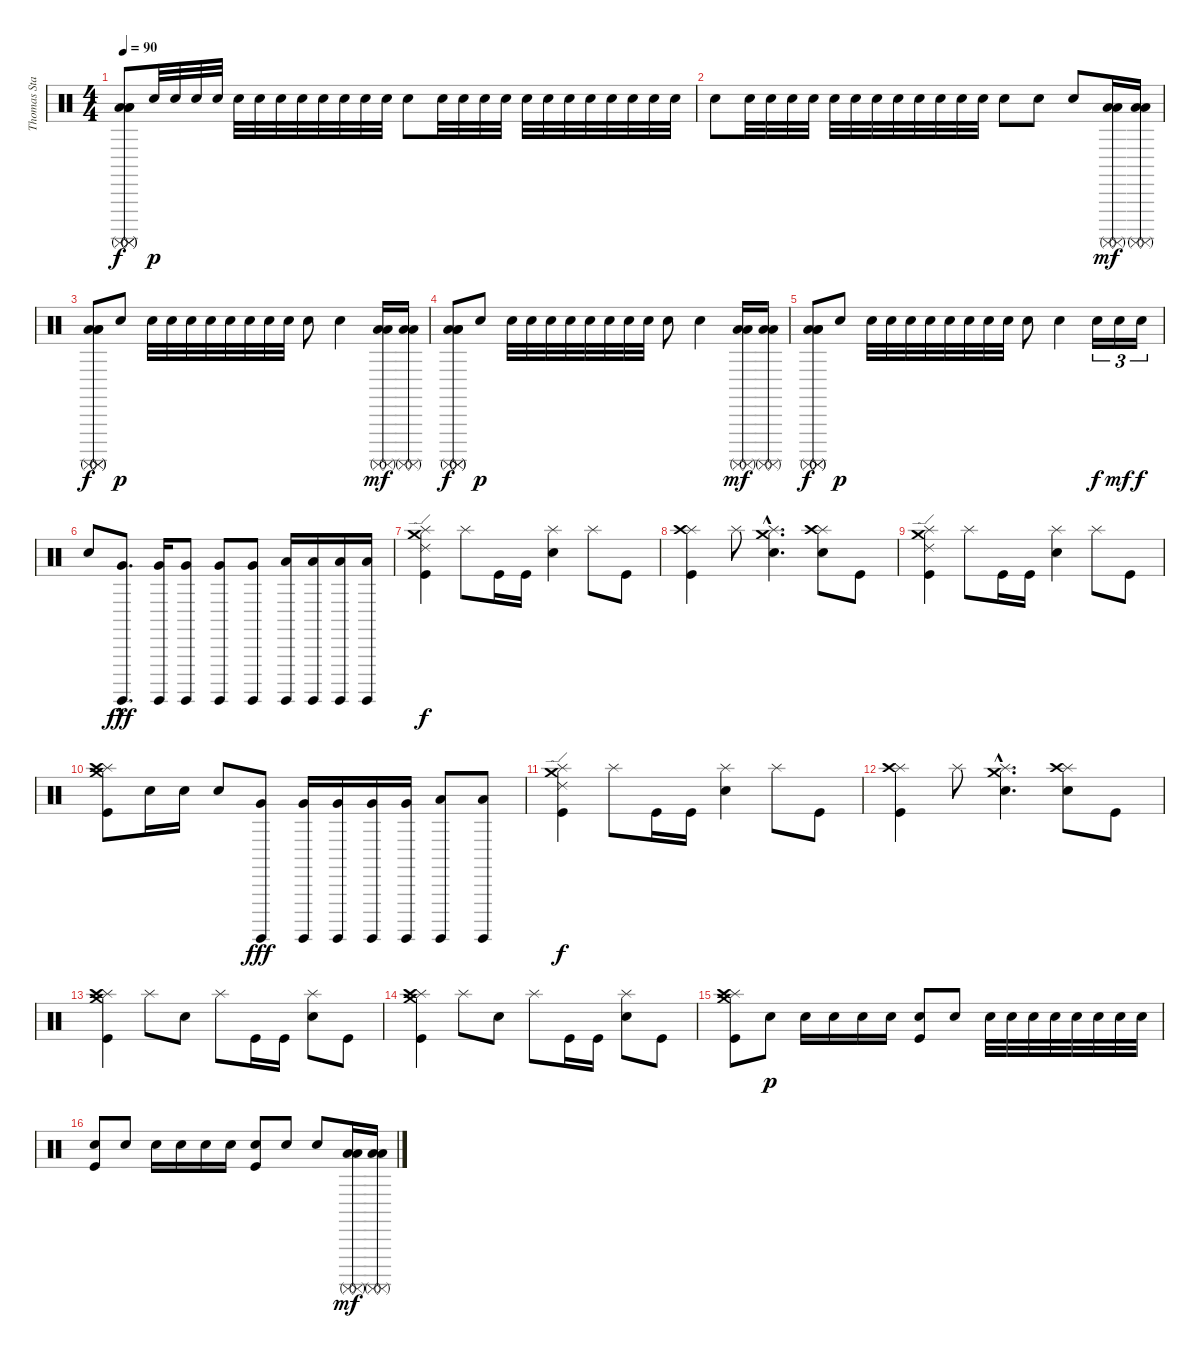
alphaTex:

\track ("Thomas Stauch" "Thomas Sta") {instrument percussion}
\staff {score}
\articulation defaults
\ts (4 4)
\tempo 90
\clef neutral
\ks c
("Surdo (mute)" "Low Floor Tom (hit)" "Surdo (mute)" "Low Floor Tom (hit)" "Surdo (mute)" "Low Floor Tom (hit)").8{dy f} "Electric Snare (hit)".32{dy p} "Electric Snare (hit)".32 "Electric Snare (hit)".32 "Electric Snare (hit)".32 "Electric Snare (hit)".32 "Electric Snare (hit)".32 "Electric Snare (hit)".32 "Electric Snare (hit)".32 "Electric Snare (hit)".32 "Electric Snare (hit)".32 "Electric Snare (hit)".32 "Electric Snare (hit)".32 "Electric Snare (hit)".8 "Electric Snare (hit)".32 "Electric Snare (hit)".32 "Electric Snare (hit)".32 "Electric Snare (hit)".32 "Electric Snare (hit)".32 "Electric Snare (hit)".32 "Electric Snare (hit)".32 "Electric Snare (hit)".32 "Electric Snare (hit)".32 "Electric Snare (hit)".32 "Electric Snare (hit)".32 "Electric Snare (hit)".32 |
"Electric Snare (hit)".8 "Electric Snare (hit)".32 "Electric Snare (hit)".32 "Electric Snare (hit)".32 "Electric Snare (hit)".32 "Electric Snare (hit)".32 "Electric Snare (hit)".32 "Electric Snare (hit)".32 "Electric Snare (hit)".32 "Electric Snare (hit)".32 "Electric Snare (hit)".32 "Electric Snare (hit)".32 "Electric Snare (hit)".32 "Electric Snare (hit)".8 "Electric Snare (hit)".8 "Electric Snare (hit)".8 ("Surdo (mute)" "Low Floor Tom (hit)" "Surdo (mute)" "Low Floor Tom (hit)").16{dy mf} ("Surdo (mute)" "Low Floor Tom (hit)" "Surdo (mute)" "Low Floor Tom (hit)").16 |
("Surdo (mute)" "Low Floor Tom (hit)" "Surdo (mute)" "Low Floor Tom (hit)" "Surdo (mute)" "Low Floor Tom (hit)").8{dy f} "Electric Snare (hit)".8{dy p} "Electric Snare (hit)".32 "Electric Snare (hit)".32 "Electric Snare (hit)".32 "Electric Snare (hit)".32 "Electric Snare (hit)".32 "Electric Snare (hit)".32 "Electric Snare (hit)".32 "Electric Snare (hit)".32 "Electric Snare (hit)".8 "Electric Snare (hit)".4 ("Surdo (mute)" "Low Floor Tom (hit)" "Surdo (mute)" "Low Floor Tom (hit)").16{dy mf} ("Low Floor Tom (hit)" "Surdo (mute)" "Low Floor Tom (hit)" "Surdo (mute)").16 |
("Surdo (mute)" "Low Floor Tom (hit)" "Surdo (mute)" "Low Floor Tom (hit)" "Surdo (mute)" "Low Floor Tom (hit)").8{dy f} "Electric Snare (hit)".8{dy p} "Electric Snare (hit)".32 "Electric Snare (hit)".32 "Electric Snare (hit)".32 "Electric Snare (hit)".32 "Electric Snare (hit)".32 "Electric Snare (hit)".32 "Electric Snare (hit)".32 "Electric Snare (hit)".32 "Electric Snare (hit)".8 "Electric Snare (hit)".4 ("Surdo (mute)" "Low Floor Tom (hit)" "Surdo (mute)" "Low Floor Tom (hit)").16{dy mf} ("Low Floor Tom (hit)" "Surdo (mute)" "Low Floor Tom (hit)" "Surdo (mute)").16 |
("Surdo (mute)" "Low Floor Tom (hit)" "Surdo (mute)" "Low Floor Tom (hit)" "Surdo (mute)" "Low Floor Tom (hit)").8{dy f} "Electric Snare (hit)".8{dy p} "Electric Snare (hit)".32 "Electric Snare (hit)".32 "Electric Snare (hit)".32 "Electric Snare (hit)".32 "Electric Snare (hit)".32 "Electric Snare (hit)".32 "Electric Snare (hit)".32 "Electric Snare (hit)".32 "Electric Snare (hit)".8 "Electric Snare (hit)".4 "Electric Snare (hit)".16{tu (3 2) dy f} "Electric Snare (hit)".16{tu (3 2) dy mf} "Electric Snare (hit)".16{tu (3 2) dy f} |
"Electric Snare (hit)".8 ("Surdo (hit)"{hac} "Very Low Tom (hit)"{hac}).8{d dy fff} ("Surdo (hit)" "Very Low Tom (hit)").16 ("Surdo (hit)" "Very Low Tom (hit)").8 ("Surdo (hit)" "Very Low Tom (hit)").8 ("Surdo (hit)" "Very Low Tom (hit)").8 ("Surdo (hit)" "Low Floor Tom (hit)").16 ("Surdo (hit)" "Low Floor Tom (hit)").16 ("Surdo (hit)" "Low Floor Tom (hit)").16 ("Surdo (hit)" "Low Floor Tom (hit)").16 |
("Crash medium (hit)" "Splash (hit)" "Ride (edge) 2" "Kick (hit)").4{dy f} "Splash (hit)".8 "Kick (hit)".16 "Kick (hit)".16 ("Splash (hit)" "Electric Snare (hit)").4 "Splash (hit)".8 "Kick (hit)".8 |
("Splash (hit)" "Crash high (hit)" "Kick (hit)").4 "Splash (hit)".8 ("Crash medium (hit)"{hac} "Splash (hit)"{hac} "Electric Snare (hit)"{hac}).4{d} ("Splash (hit)" "Crash high (hit)" "Electric Snare (hit)").8 "Kick (hit)".8 |
("Crash medium (hit)" "Splash (hit)" "Ride (edge) 2" "Kick (hit)").4 "Splash (hit)".8 "Kick (hit)".16 "Kick (hit)".16 ("Splash (hit)" "Electric Snare (hit)").4 "Splash (hit)".8 "Kick (hit)".8 |
("Crash medium (hit)" "Splash (hit)" "Crash high (hit)" "Kick (hit)").8 "Electric Snare (hit)".16 "Electric Snare (hit)".16 "Electric Snare (hit)".8 ("Surdo (hit)" "Very Low Tom (hit)").8{dy fff} ("Surdo (hit)" "Very Low Tom (hit)").16 ("Surdo (hit)" "Very Low Tom (hit)").16 ("Surdo (hit)" "Very Low Tom (hit)").16 ("Surdo (hit)" "Very Low Tom (hit)").16 ("Surdo (hit)" "Low Floor Tom (hit)").8 ("Surdo (hit)" "Low Floor Tom (hit)").8 |
("Crash medium (hit)" "Splash (hit)" "Ride (edge) 2" "Kick (hit)").4{dy f} "Splash (hit)".8 "Kick (hit)".16 "Kick (hit)".16 ("Splash (hit)" "Electric Snare (hit)").4 "Splash (hit)".8 "Kick (hit)".8 |
("Splash (hit)" "Crash high (hit)" "Kick (hit)").4 "Splash (hit)".8 ("Crash medium (hit)"{hac} "Splash (hit)"{hac} "Electric Snare (hit)"{hac}).4{d} ("Splash (hit)" "Crash high (hit)" "Electric Snare (hit)").8 "Kick (hit)".8 |
("Crash medium (hit)" "Splash (hit)" "Crash high (hit)" "Kick (hit)").4 "Splash (hit)".8 "Electric Snare (hit)".8 "Splash (hit)".8 "Kick (hit)".16 "Kick (hit)".16 ("Splash (hit)" "Electric Snare (hit)").8 "Kick (hit)".8 |
("Crash medium (hit)" "Splash (hit)" "Crash high (hit)" "Kick (hit)").4 "Splash (hit)".8 "Electric Snare (hit)".8 "Splash (hit)".8 "Kick (hit)".16 "Kick (hit)".16 ("Splash (hit)" "Electric Snare (hit)").8 "Kick (hit)".8 |
("Crash medium (hit)" "Splash (hit)" "Crash high (hit)" "Kick (hit)").8 "Electric Snare (hit)".8{dy p} "Electric Snare (hit)".16 "Electric Snare (hit)".16 "Electric Snare (hit)".16 "Electric Snare (hit)".16 ("Electric Snare (hit)" "Kick (hit)").8 "Electric Snare (hit)".8 "Electric Snare (hit)".32 "Electric Snare (hit)".32 "Electric Snare (hit)".32 "Electric Snare (hit)".32 "Electric Snare (hit)".32 "Electric Snare (hit)".32 "Electric Snare (hit)".32 "Electric Snare (hit)".32 |
("Electric Snare (hit)" "Kick (hit)").8 "Electric Snare (hit)".8 "Electric Snare (hit)".16 "Electric Snare (hit)".16 "Electric Snare (hit)".16 "Electric Snare (hit)".16 ("Electric Snare (hit)" "Kick (hit)").8 "Electric Snare (hit)".8 "Electric Snare (hit)".8 ("Surdo (mute)" "Low Floor Tom (hit)" "Surdo (mute)" "Low Floor Tom (hit)").16{dy mf} ("Surdo (mute)" "Low Floor Tom (hit)" "Surdo (mute)" "Low Floor Tom (hit)").16
